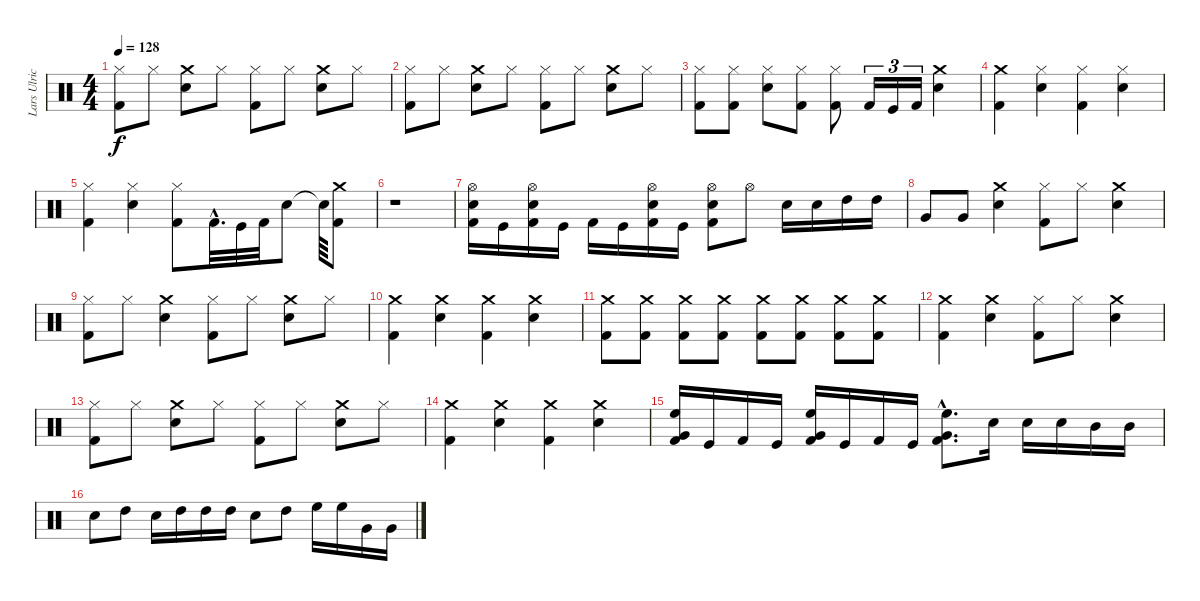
\track ("Lars Ulrich (Drums)" "Lars Ulric") {instrument percussion}
\staff {score}
\articulation defaults
\ts (4 4)
\tempo 128
\clef neutral
\ks c
("Hi-Hat (closed)" "Kick (hit) 2").8{dy f} "Hi-Hat (closed)".8 ("Crash medium (hit)" "Snare (hit) 2").8 "Hi-Hat (closed)".8 ("Hi-Hat (closed)" "Kick (hit) 2").8 "Hi-Hat (closed)".8 ("Crash medium (hit)" "Snare (hit) 2").8 "Hi-Hat (closed)".8 |
("Hi-Hat (closed)" "Kick (hit) 2").8 "Hi-Hat (closed)".8 ("Crash medium (hit)" "Snare (hit) 2").8 "Hi-Hat (closed)".8 ("Hi-Hat (closed)" "Kick (hit) 2").8 "Hi-Hat (closed)".8 ("Crash medium (hit)" "Snare (hit) 2").8 "Hi-Hat (closed)".8 |
("Hi-Hat (closed)" "Kick (hit) 2").8 ("Hi-Hat (closed)" "Kick (hit) 2").8 ("Snare (hit) 2" "Hi-Hat (closed)").8 ("Hi-Hat (closed)" "Kick (hit) 2").8 ("Hi-Hat (closed)" "Kick (hit) 2").8 "Kick (hit) 2".16{tu (3 2)} "Kick (hit)".16{tu (3 2)} "Kick (hit) 2".16{tu (3 2)} ("Crash medium (hit)" "Snare (hit) 2").4 |
("Crash medium (hit)" "Kick (hit) 2").4 ("Snare (hit) 2" "Hi-Hat (closed)").4 ("Hi-Hat (closed)" "Kick (hit) 2").4 ("Snare (hit) 2" "Hi-Hat (closed)").4 |
("Hi-Hat (closed)" "Kick (hit) 2").4 ("Hi-Hat (closed)" "Snare (hit) 2").4 ("Kick (hit) 2" "Hi-Hat (closed)").8 "Kick (hit) 2"{hac}.32{d} "Kick (hit)".32 "Kick (hit) 2".32 "Snare (hit) 2".8 "Snare (hit)"{t}.64 ("Crash medium (hit)" "Kick (hit) 2").8 |
r.1 |
("Hi-Hat (open)" "Snare (hit) 2" "Kick (hit) 2").16 "Kick (hit)".16 ("Hi-Hat (open)" "Snare (hit) 2" "Kick (hit) 2").16 "Kick (hit)".16 "Kick (hit) 2".16 "Kick (hit)".16 ("Hi-Hat (open)" "Snare (hit) 2" "Kick (hit) 2").16 "Kick (hit)".16 ("Hi-Hat (open)" "Snare (hit) 2" "Kick (hit) 2").8 "Hi-Hat (open)".8 "Snare (hit) 2".16 "Snare (hit) 2".16 "High Tom (hit)".16 "High Tom (hit)".16 |
"Very Low Tom (hit)".8 "Very Low Tom (hit)".8 ("Crash medium (hit)" "Snare (hit) 2").4 ("Kick (hit) 2" "Hi-Hat (closed)").8 "Hi-Hat (closed)".8 ("Crash medium (hit)" "Snare (hit) 2").4 |
("Hi-Hat (closed)" "Kick (hit) 2").8 "Hi-Hat (closed)".8 ("Crash medium (hit)" "Snare (hit) 2").4 ("Hi-Hat (closed)" "Kick (hit) 2").8 "Hi-Hat (closed)".8 ("Crash medium (hit)" "Snare (hit) 2").8 "Hi-Hat (closed)".8 |
("Crash medium (hit)" "Kick (hit) 2").4 ("Crash medium (hit)" "Snare (hit) 2").4 ("Crash medium (hit)" "Kick (hit) 2").4 ("Crash medium (hit)" "Snare (hit) 2").4 |
("Kick (hit) 2" "Crash medium (hit)").8 ("Kick (hit) 2" "Crash medium (hit)").8 ("Kick (hit) 2" "Crash medium (hit)").8 ("Kick (hit) 2" "Crash medium (hit)").8 ("Kick (hit) 2" "Crash medium (hit)").8 ("Kick (hit) 2" "Crash medium (hit)").8 ("Kick (hit) 2" "Crash medium (hit)").8 ("Kick (hit) 2" "Crash medium (hit)").8 |
("Kick (hit) 2" "Crash medium (hit)").4 ("Snare (hit) 2" "Crash medium (hit)").4 ("Hi-Hat (closed)" "Kick (hit) 2").8 "Hi-Hat (closed)".8 ("Snare (hit) 2" "Crash medium (hit)").4 |
("Kick (hit) 2" "Hi-Hat (closed)").8 "Hi-Hat (closed)".8 ("Crash medium (hit)" "Snare (hit) 2").8 "Hi-Hat (closed)".8 ("Kick (hit) 2" "Hi-Hat (closed)").8 "Hi-Hat (closed)".8 ("Crash medium (hit)" "Snare (hit) 2").8 "Hi-Hat (closed)".8 |
("Crash medium (hit)" "Kick (hit) 2").4 ("Crash medium (hit)" "Snare (hit) 2").4 ("Crash medium (hit)" "Kick (hit) 2").4 ("Crash medium (hit)" "Snare (hit) 2").4 |
("Kick (hit) 2" "High Floor Tom (hit)" "Very Low Tom (hit)").16 "Kick (hit)".16 "Kick (hit) 2".16 "Kick (hit)".16 ("Kick (hit) 2" "High Floor Tom (hit)" "Very Low Tom (hit)").16 "Kick (hit)".16 "Kick (hit) 2".16 "Kick (hit)".16 ("High Floor Tom (hit)"{hac} "Very Low Tom (hit)"{hac} "Kick (hit) 2"{hac}).8{d} "Snare (hit) 2".16 "Snare (hit) 2".16 "Snare (hit) 2".16 "Mid Tom (hit)".16 "Mid Tom (hit)".16 |
"Snare (hit) 2".8 "High Tom (hit)".8 "Snare (hit) 2".16 "High Tom (hit)".16 "High Tom (hit)".16 "High Tom (hit)".16 "Snare (hit) 2".8 "High Tom (hit)".8 "High Floor Tom (hit)".16 "High Floor Tom (hit)".16 "Very Low Tom (hit)".16 "Very Low Tom (hit)".16
